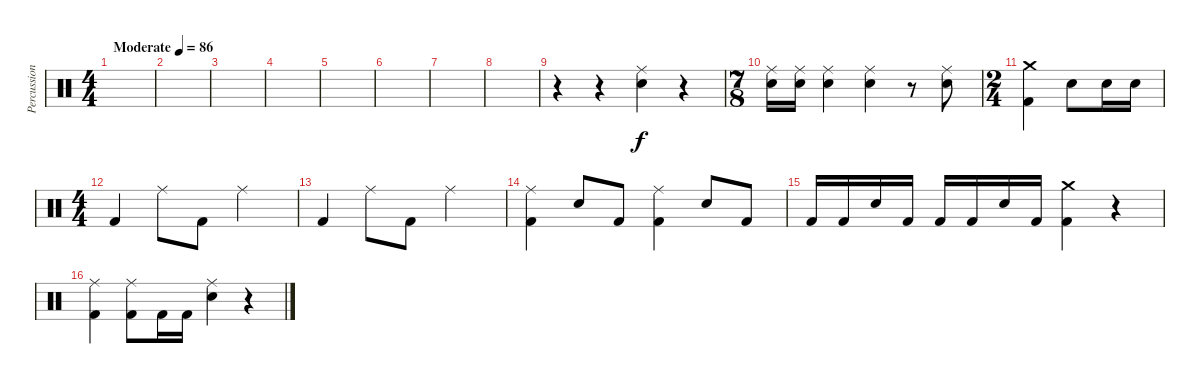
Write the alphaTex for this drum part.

\track ("Percussion" "Percussion") {instrument percussion}
\staff {score}
\articulation defaults
\ts (4 4)
\tempo (86 "Moderate")
\clef neutral
\ks c
|
|
|
|
|
|
|
|
r.4 r.4 ("Ride (middle)" "Snare (hit) 2").4 r.4 |
\ts (7 8)
("Ride (middle)" "Snare (hit) 2").16 ("Ride (middle)" "Snare (hit) 2").16 ("Ride (middle)" "Snare (hit) 2").4 ("Ride (middle)" "Snare (hit) 2").4 r.8 ("Ride (middle)" "Snare (hit) 2").8 |
\ts (2 4)
("Crash medium (hit)" "Kick (hit) 2").4 "Snare (hit) 2".8 "Snare (hit) 2".16 "Snare (hit) 2".16 |
\ts (4 4)
"Kick (hit) 2".4 "Ride (middle)".8 "Kick (hit) 2".8 "Ride (middle)".2 |
"Kick (hit) 2".4 "Ride (middle)".8 "Kick (hit) 2".8 "Ride (middle)".2 |
("Ride (middle)" "Kick (hit) 2").4 "Snare (hit) 2".8 "Kick (hit) 2".8 ("Ride (middle)" "Kick (hit) 2").4 "Snare (hit) 2".8 "Kick (hit) 2".8 |
"Kick (hit) 2".16 "Kick (hit) 2".16 "Snare (hit) 2".16 "Kick (hit) 2".16 "Kick (hit) 2".16 "Kick (hit) 2".16 "Snare (hit) 2".16 "Kick (hit) 2".16 ("Crash medium (hit)" "Kick (hit) 2").4 r.4 |
("Ride (middle)" "Kick (hit) 2").4 ("Ride (middle)" "Kick (hit) 2").8 "Kick (hit) 2".16 "Kick (hit) 2".16 ("Ride (middle)" "Snare (hit) 2").4 r.4
